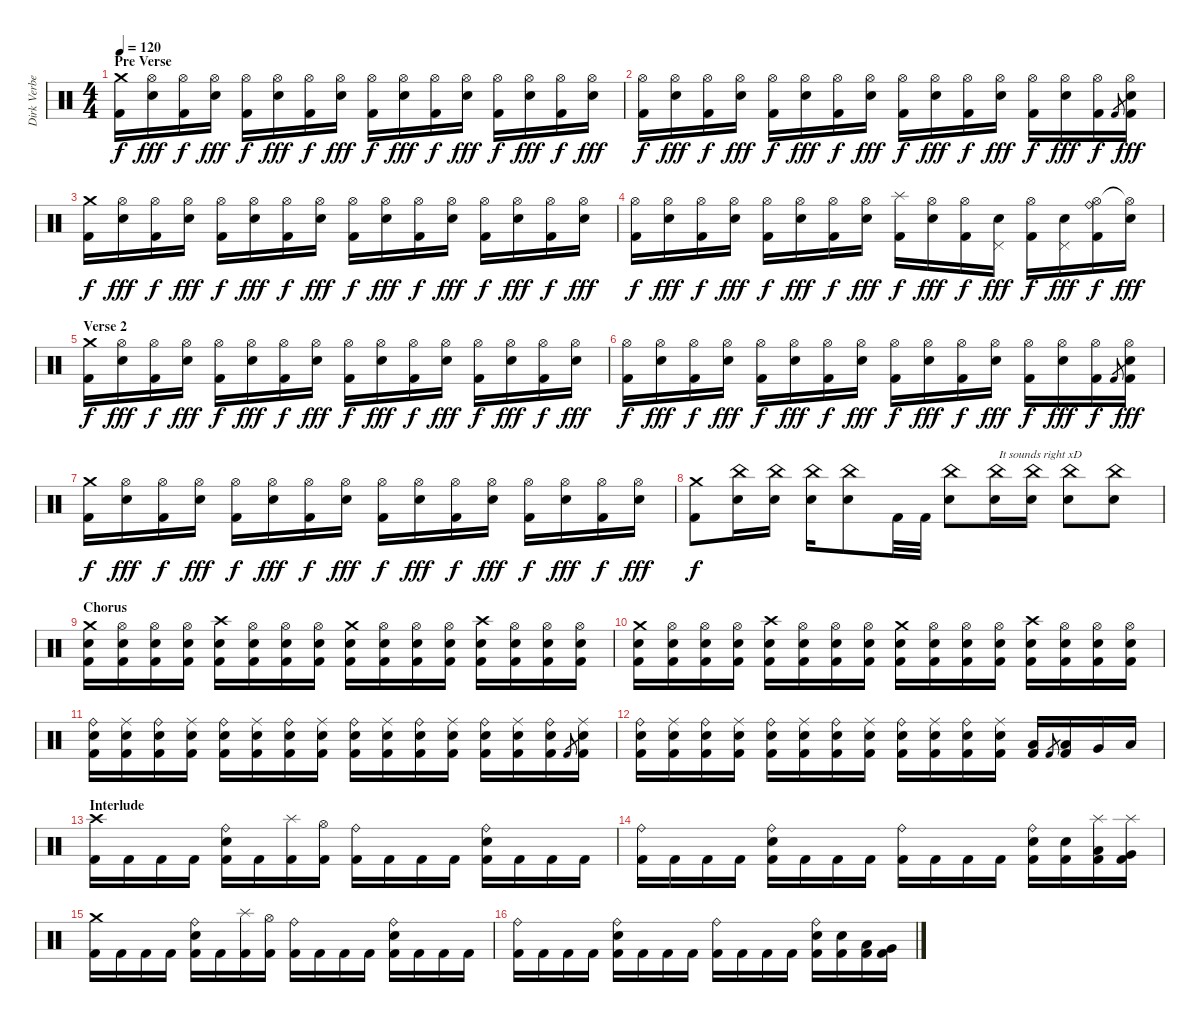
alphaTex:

\track ("Dirk Verbeuren" "Dirk Verbe") {instrument percussion}
\staff {score}
\articulation defaults
\ts (4 4)
\section ("" "Pre Verse")
\tempo 120
\clef neutral
\ks c
("Kick (hit) 2" "Crash medium (hit)").16{dy f} ("Electric Snare (hit)" "Hi-Hat (open)").16{dy fff} ("Kick (hit) 2" "Hi-Hat (open)").16{dy f} ("Electric Snare (hit)" "Hi-Hat (open)").16{dy fff} ("Kick (hit) 2" "Hi-Hat (open)").16{dy f} ("Electric Snare (hit)" "Hi-Hat (open)").16{dy fff} ("Kick (hit) 2" "Hi-Hat (open)").16{dy f} ("Electric Snare (hit)" "Hi-Hat (open)").16{dy fff} ("Kick (hit) 2" "Hi-Hat (open)").16{dy f} ("Electric Snare (hit)" "Hi-Hat (open)").16{dy fff} ("Kick (hit) 2" "Hi-Hat (open)").16{dy f} ("Electric Snare (hit)" "Hi-Hat (open)").16{dy fff} ("Kick (hit) 2" "Hi-Hat (open)").16{dy f} ("Electric Snare (hit)" "Hi-Hat (open)").16{dy fff} ("Kick (hit) 2" "Hi-Hat (open)").16{dy f} ("Electric Snare (hit)" "Hi-Hat (open)").16{dy fff} |
("Kick (hit) 2" "Hi-Hat (open)").16{dy f} ("Electric Snare (hit)" "Hi-Hat (open)").16{dy fff} ("Kick (hit) 2" "Hi-Hat (open)").16{dy f} ("Electric Snare (hit)" "Hi-Hat (open)").16{dy fff} ("Kick (hit) 2" "Hi-Hat (open)").16{dy f} ("Electric Snare (hit)" "Hi-Hat (open)").16{dy fff} ("Kick (hit) 2" "Hi-Hat (open)").16{dy f} ("Electric Snare (hit)" "Hi-Hat (open)").16{dy fff} ("Kick (hit) 2" "Hi-Hat (open)").16{dy f} ("Electric Snare (hit)" "Hi-Hat (open)").16{dy fff} ("Kick (hit) 2" "Hi-Hat (open)").16{dy f} ("Electric Snare (hit)" "Hi-Hat (open)").16{dy fff} ("Kick (hit) 2" "Hi-Hat (open)").16{dy f} ("Electric Snare (hit)" "Hi-Hat (open)").16{dy fff} ("Kick (hit) 2" "Hi-Hat (open)").16{dy f} "Kick (hit) 2".8{gr} ("Kick (hit) 2" "Electric Snare (hit)" "Hi-Hat (open)").16{dy fff} |
("Kick (hit) 2" "Crash medium (hit)").16{dy f} ("Electric Snare (hit)" "Hi-Hat (open)").16{dy fff} ("Kick (hit) 2" "Hi-Hat (open)").16{dy f} ("Electric Snare (hit)" "Hi-Hat (open)").16{dy fff} ("Kick (hit) 2" "Hi-Hat (open)").16{dy f} ("Electric Snare (hit)" "Hi-Hat (open)").16{dy fff} ("Kick (hit) 2" "Hi-Hat (open)").16{dy f} ("Electric Snare (hit)" "Hi-Hat (open)").16{dy fff} ("Kick (hit) 2" "Hi-Hat (open)").16{dy f} ("Electric Snare (hit)" "Hi-Hat (open)").16{dy fff} ("Kick (hit) 2" "Hi-Hat (open)").16{dy f} ("Electric Snare (hit)" "Hi-Hat (open)").16{dy fff} ("Kick (hit) 2" "Hi-Hat (open)").16{dy f} ("Electric Snare (hit)" "Hi-Hat (open)").16{dy fff} ("Kick (hit) 2" "Hi-Hat (open)").16{dy f} ("Electric Snare (hit)" "Hi-Hat (open)").16{dy fff} |
("Kick (hit) 2" "Hi-Hat (open)").16{dy f} ("Electric Snare (hit)" "Hi-Hat (open)").16{dy fff} ("Kick (hit) 2" "Hi-Hat (open)").16{dy f} ("Electric Snare (hit)" "Hi-Hat (open)").16{dy fff} ("Kick (hit) 2" "Hi-Hat (open)").16{dy f} ("Electric Snare (hit)" "Hi-Hat (open)").16{dy fff} ("Kick (hit) 2" "Hi-Hat (open)").16{dy f} ("Electric Snare (hit)" "Hi-Hat (open)").16{dy fff} ("Kick (hit) 2" "Splash (hit)").16{dy f} ("Electric Snare (hit)" "Hi-Hat (open)").16{dy fff} ("Kick (hit) 2" "Hi-Hat (open)").16{dy f} ("Electric Snare (hit)" "Pedal Hi-Hat (hit)").16{dy fff} ("Kick (hit) 2" "Hi-Hat (open)").16{dy f} ("Electric Snare (hit)" "Pedal Hi-Hat (hit)").16{dy fff} ("Kick (hit) 2" "Hi-Hat (open)" "Ride (bell)").16{dy f} ("Electric Snare (hit)" "Hi-Hat (open)"{t}).16{dy fff} |
\section ("" "Verse 2")
("Kick (hit) 2" "Crash medium (hit)").16{dy f} ("Electric Snare (hit)" "Hi-Hat (open)").16{dy fff} ("Kick (hit) 2" "Hi-Hat (open)").16{dy f} ("Electric Snare (hit)" "Hi-Hat (open)").16{dy fff} ("Kick (hit) 2" "Hi-Hat (open)").16{dy f} ("Electric Snare (hit)" "Hi-Hat (open)").16{dy fff} ("Kick (hit) 2" "Hi-Hat (open)").16{dy f} ("Electric Snare (hit)" "Hi-Hat (open)").16{dy fff} ("Kick (hit) 2" "Hi-Hat (open)").16{dy f} ("Electric Snare (hit)" "Hi-Hat (open)").16{dy fff} ("Kick (hit) 2" "Hi-Hat (open)").16{dy f} ("Electric Snare (hit)" "Hi-Hat (open)").16{dy fff} ("Kick (hit) 2" "Hi-Hat (open)").16{dy f} ("Electric Snare (hit)" "Hi-Hat (open)").16{dy fff} ("Kick (hit) 2" "Hi-Hat (open)").16{dy f} ("Electric Snare (hit)" "Hi-Hat (open)").16{dy fff} |
("Kick (hit) 2" "Hi-Hat (open)").16{dy f} ("Electric Snare (hit)" "Hi-Hat (open)").16{dy fff} ("Kick (hit) 2" "Hi-Hat (open)").16{dy f} ("Electric Snare (hit)" "Hi-Hat (open)").16{dy fff} ("Kick (hit) 2" "Hi-Hat (open)").16{dy f} ("Electric Snare (hit)" "Hi-Hat (open)").16{dy fff} ("Kick (hit) 2" "Hi-Hat (open)").16{dy f} ("Electric Snare (hit)" "Hi-Hat (open)").16{dy fff} ("Kick (hit) 2" "Hi-Hat (open)").16{dy f} ("Electric Snare (hit)" "Hi-Hat (open)").16{dy fff} ("Kick (hit) 2" "Hi-Hat (open)").16{dy f} ("Electric Snare (hit)" "Hi-Hat (open)").16{dy fff} ("Kick (hit) 2" "Hi-Hat (open)").16{dy f} ("Electric Snare (hit)" "Hi-Hat (open)").16{dy fff} ("Kick (hit) 2" "Hi-Hat (open)").16{dy f} "Kick (hit) 2".8{gr} ("Kick (hit) 2" "Electric Snare (hit)" "Hi-Hat (open)").16{dy fff} |
("Kick (hit) 2" "Crash medium (hit)").16{dy f} ("Electric Snare (hit)" "Hi-Hat (open)").16{dy fff} ("Kick (hit) 2" "Hi-Hat (open)").16{dy f} ("Electric Snare (hit)" "Hi-Hat (open)").16{dy fff} ("Kick (hit) 2" "Hi-Hat (open)").16{dy f} ("Electric Snare (hit)" "Hi-Hat (open)").16{dy fff} ("Kick (hit) 2" "Hi-Hat (open)").16{dy f} ("Electric Snare (hit)" "Hi-Hat (open)").16{dy fff} ("Kick (hit) 2" "Hi-Hat (open)").16{dy f} ("Electric Snare (hit)" "Hi-Hat (open)").16{dy fff} ("Kick (hit) 2" "Hi-Hat (open)").16{dy f} ("Electric Snare (hit)" "Hi-Hat (open)").16{dy fff} ("Kick (hit) 2" "Hi-Hat (open)").16{dy f} ("Electric Snare (hit)" "Hi-Hat (open)").16{dy fff} ("Kick (hit) 2" "Hi-Hat (open)").16{dy f} ("Electric Snare (hit)" "Hi-Hat (open)").16{dy fff} |
("Kick (hit) 2" "Crash medium (hit)").8{dy f} ("Electric Snare (hit)" "China (hit)").16 ("Electric Snare (hit)" "China (hit)").16 ("Electric Snare (hit)" "China (hit)").16 ("Electric Snare (hit)" "China (hit)").8 "Kick (hit) 2".32 "Kick (hit) 2".32 ("Electric Snare (hit)" "China (hit)").8 ("Electric Snare (hit)" "China (hit)").16{txt "It sounds right xD"} ("Electric Snare (hit)" "China (hit)").16 ("Electric Snare (hit)" "China (hit)").8 ("Electric Snare (hit)" "China (hit)").8 |
\section ("" "Chorus")
("Kick (hit) 2" "Electric Snare (hit)" "Crash medium (hit)").16 ("Kick (hit) 2" "Electric Snare (hit)" "Hi-Hat (open)").16 ("Kick (hit) 2" "Electric Snare (hit)" "Hi-Hat (open)").16 ("Kick (hit) 2" "Electric Snare (hit)" "Hi-Hat (open)").16 ("Kick (hit) 2" "Electric Snare (hit)" "Crash high (hit)").16 ("Kick (hit) 2" "Electric Snare (hit)" "Hi-Hat (open)").16 ("Kick (hit) 2" "Electric Snare (hit)" "Hi-Hat (open)").16 ("Kick (hit) 2" "Electric Snare (hit)" "Hi-Hat (open)").16 ("Kick (hit) 2" "Electric Snare (hit)" "Crash medium (hit)").16 ("Kick (hit) 2" "Electric Snare (hit)" "Hi-Hat (open)").16 ("Kick (hit) 2" "Electric Snare (hit)" "Hi-Hat (open)").16 ("Kick (hit) 2" "Electric Snare (hit)" "Hi-Hat (open)").16 ("Kick (hit) 2" "Electric Snare (hit)" "Crash high (hit)").16 ("Kick (hit) 2" "Electric Snare (hit)" "Hi-Hat (open)").16 ("Kick (hit) 2" "Electric Snare (hit)" "Hi-Hat (open)").16 ("Kick (hit) 2" "Electric Snare (hit)" "Hi-Hat (open)").16 |
("Kick (hit) 2" "Electric Snare (hit)" "Crash medium (hit)").16 ("Kick (hit) 2" "Electric Snare (hit)" "Hi-Hat (open)").16 ("Kick (hit) 2" "Electric Snare (hit)" "Hi-Hat (open)").16 ("Kick (hit) 2" "Electric Snare (hit)" "Hi-Hat (open)").16 ("Kick (hit) 2" "Electric Snare (hit)" "Crash high (hit)").16 ("Kick (hit) 2" "Electric Snare (hit)" "Hi-Hat (open)").16 ("Kick (hit) 2" "Electric Snare (hit)" "Hi-Hat (open)").16 ("Kick (hit) 2" "Electric Snare (hit)" "Hi-Hat (open)").16 ("Kick (hit) 2" "Electric Snare (hit)" "Crash medium (hit)").16 ("Kick (hit) 2" "Electric Snare (hit)" "Hi-Hat (open)").16 ("Kick (hit) 2" "Electric Snare (hit)" "Hi-Hat (open)").16 ("Kick (hit) 2" "Electric Snare (hit)" "Hi-Hat (open)").16 ("Kick (hit) 2" "Electric Snare (hit)" "Crash high (hit)").16 ("Kick (hit) 2" "Electric Snare (hit)" "Hi-Hat (open)").16 ("Kick (hit) 2" "Electric Snare (hit)" "Hi-Hat (open)").16 ("Kick (hit) 2" "Electric Snare (hit)" "Hi-Hat (open)").16 |
("Kick (hit) 2" "Electric Snare (hit)" "Ride (bell)").16 ("Kick (hit) 2" "Electric Snare (hit)" "Ride (middle)").16 ("Kick (hit) 2" "Electric Snare (hit)" "Ride (bell)").16 ("Kick (hit) 2" "Electric Snare (hit)" "Ride (middle)").16 ("Kick (hit) 2" "Electric Snare (hit)" "Ride (bell)").16 ("Kick (hit) 2" "Electric Snare (hit)" "Ride (middle)").16 ("Kick (hit) 2" "Electric Snare (hit)" "Ride (bell)").16 ("Kick (hit) 2" "Electric Snare (hit)" "Ride (middle)").16 ("Kick (hit) 2" "Electric Snare (hit)" "Ride (bell)").16 ("Kick (hit) 2" "Electric Snare (hit)" "Ride (middle)").16 ("Kick (hit) 2" "Electric Snare (hit)" "Ride (bell)").16 ("Kick (hit) 2" "Electric Snare (hit)" "Ride (middle)").16 ("Kick (hit) 2" "Electric Snare (hit)" "Ride (bell)").16 ("Kick (hit) 2" "Electric Snare (hit)" "Ride (middle)").16 ("Kick (hit) 2" "Electric Snare (hit)" "Ride (bell)").16 "Kick (hit) 2".8{gr} ("Kick (hit) 2" "Electric Snare (hit)" "Ride (middle)").16 |
("Kick (hit) 2" "Electric Snare (hit)" "Ride (bell)").16 ("Kick (hit) 2" "Electric Snare (hit)" "Ride (middle)").16 ("Kick (hit) 2" "Electric Snare (hit)" "Ride (bell)").16 ("Kick (hit) 2" "Electric Snare (hit)" "Ride (middle)").16 ("Kick (hit) 2" "Electric Snare (hit)" "Ride (bell)").16 ("Kick (hit) 2" "Electric Snare (hit)" "Ride (middle)").16 ("Kick (hit) 2" "Electric Snare (hit)" "Ride (bell)").16 ("Kick (hit) 2" "Electric Snare (hit)" "Ride (middle)").16 ("Kick (hit) 2" "Electric Snare (hit)" "Ride (bell)").16 ("Kick (hit) 2" "Electric Snare (hit)" "Ride (middle)").16 ("Kick (hit) 2" "Electric Snare (hit)" "Ride (bell)").16 ("Kick (hit) 2" "Electric Snare (hit)" "Ride (middle)").16 ("Kick (hit) 2" "Low Tom (hit)").16 "Kick (hit) 2".8{gr} ("Kick (hit) 2" "Low Tom (hit)").16 "Very Low Tom (hit)".16 "Low Floor Tom (hit)".16 |
\section ("" "Interlude")
("Kick (hit) 2" "Crash high (hit)").16 "Kick (hit) 2".16 "Kick (hit) 2".16 "Kick (hit) 2".16 ("Kick (hit) 2" "Electric Snare (hit)" "Ride (bell)").16 "Kick (hit) 2".16 ("Kick (hit) 2" "Splash (hit)").16 ("Kick (hit) 2" "Hi-Hat (open)").16 ("Kick (hit) 2" "Ride (bell)").16 "Kick (hit) 2".16 "Kick (hit) 2".16 "Kick (hit) 2".16 ("Kick (hit) 2" "Electric Snare (hit)" "Ride (bell)").16 "Kick (hit) 2".16 "Kick (hit) 2".16 "Kick (hit) 2".16 |
("Kick (hit) 2" "Ride (bell)").16 "Kick (hit) 2".16 "Kick (hit) 2".16 "Kick (hit) 2".16 ("Kick (hit) 2" "Electric Snare (hit)" "Ride (bell)").16 "Kick (hit) 2".16 "Kick (hit) 2".16 "Kick (hit) 2".16 ("Kick (hit) 2" "Ride (bell)").16 "Kick (hit) 2".16 "Kick (hit) 2".16 "Kick (hit) 2".16 ("Kick (hit) 2" "Electric Snare (hit)" "Ride (bell)").16 ("Kick (hit) 2" "Electric Snare (hit)").16 ("Kick (hit) 2" "Low Tom (hit)" "Splash (hit)").16 ("Kick (hit) 2" "Very Low Tom (hit)" "Splash (hit)").16 |
("Kick (hit) 2" "Crash medium (hit)").16 "Kick (hit) 2".16 "Kick (hit) 2".16 "Kick (hit) 2".16 ("Kick (hit) 2" "Electric Snare (hit)" "Ride (bell)").16 "Kick (hit) 2".16 ("Kick (hit) 2" "Splash (hit)").16 ("Kick (hit) 2" "Hi-Hat (open)").16 ("Kick (hit) 2" "Ride (bell)").16 "Kick (hit) 2".16 "Kick (hit) 2".16 "Kick (hit) 2".16 ("Kick (hit) 2" "Electric Snare (hit)" "Ride (bell)").16 "Kick (hit) 2".16 "Kick (hit) 2".16 "Kick (hit) 2".16 |
("Kick (hit) 2" "Ride (bell)").16 "Kick (hit) 2".16 "Kick (hit) 2".16 "Kick (hit) 2".16 ("Kick (hit) 2" "Electric Snare (hit)" "Ride (bell)").16 "Kick (hit) 2".16 "Kick (hit) 2".16 "Kick (hit) 2".16 ("Kick (hit) 2" "Ride (bell)").16 "Kick (hit) 2".16 "Kick (hit) 2".16 "Kick (hit) 2".16 ("Kick (hit) 2" "Electric Snare (hit)" "Ride (bell)").16 ("Kick (hit) 2" "Electric Snare (hit)").16 ("Kick (hit) 2" "Low Tom (hit)").16 ("Kick (hit) 2" "Very Low Tom (hit)").16
